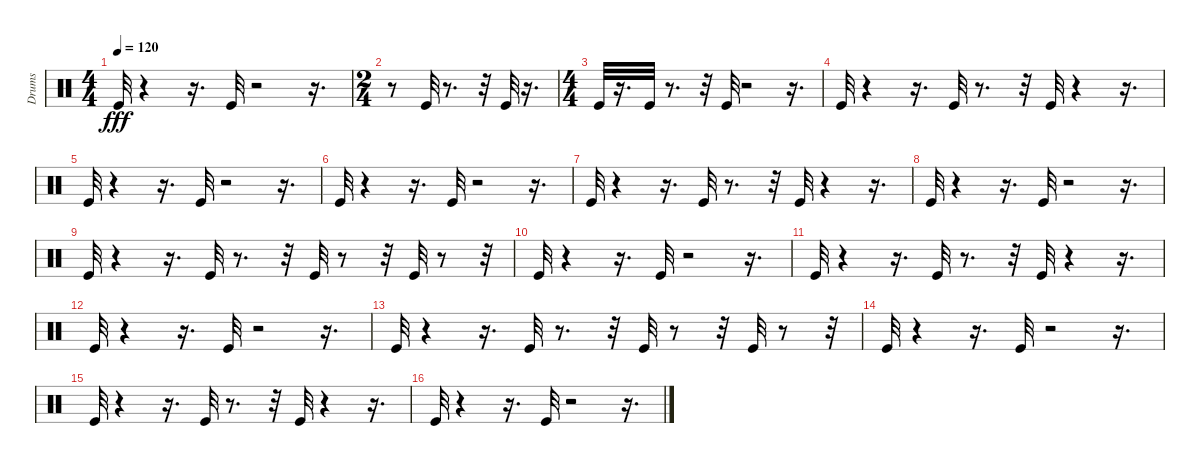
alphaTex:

\track ("Drums" "Drums") {instrument percussion}
\staff {score}
\articulation defaults
\ts (4 4)
\tempo 120
\clef neutral
\ks c "Kick (hit)".32{dy fff}
r.4 r.16{d} "Kick (hit)".32 r.2 r.16{d} |
\ts (2 4)
r.8 "Kick (hit)".32 r.8{d} r.32 "Kick (hit)".32 r.16{d} |
\ts (4 4)
"Kick (hit)".32 r.16{d} "Kick (hit)".32 r.8{d} r.32 "Kick (hit)".32 r.2 r.16{d} |
"Kick (hit)".32 r.4 r.16{d} "Kick (hit)".32 r.8{d} r.32 "Kick (hit)".32 r.4 r.16{d} |
"Kick (hit)".32 r.4 r.16{d} "Kick (hit)".32 r.2 r.16{d} |
"Kick (hit)".32 r.4 r.16{d} "Kick (hit)".32 r.2 r.16{d} |
"Kick (hit)".32 r.4 r.16{d} "Kick (hit)".32 r.8{d} r.32 "Kick (hit)".32 r.4 r.16{d} |
"Kick (hit)".32 r.4 r.16{d} "Kick (hit)".32 r.2 r.16{d} |
"Kick (hit)".32 r.4 r.16{d} "Kick (hit)".32 r.8{d} r.32 "Kick (hit)".32 r.8 r.32 "Kick (hit)".32 r.8 r.32 |
"Kick (hit)".32 r.4 r.16{d} "Kick (hit)".32 r.2 r.16{d} |
"Kick (hit)".32 r.4 r.16{d} "Kick (hit)".32 r.8{d} r.32 "Kick (hit)".32 r.4 r.16{d} |
"Kick (hit)".32 r.4 r.16{d} "Kick (hit)".32 r.2 r.16{d} |
"Kick (hit)".32 r.4 r.16{d} "Kick (hit)".32 r.8{d} r.32 "Kick (hit)".32 r.8 r.32 "Kick (hit)".32 r.8 r.32 |
"Kick (hit)".32 r.4 r.16{d} "Kick (hit)".32 r.2 r.16{d} |
"Kick (hit)".32 r.4 r.16{d} "Kick (hit)".32 r.8{d} r.32 "Kick (hit)".32 r.4 r.16{d} |
"Kick (hit)".32 r.4 r.16{d} "Kick (hit)".32 r.2 r.16{d}
